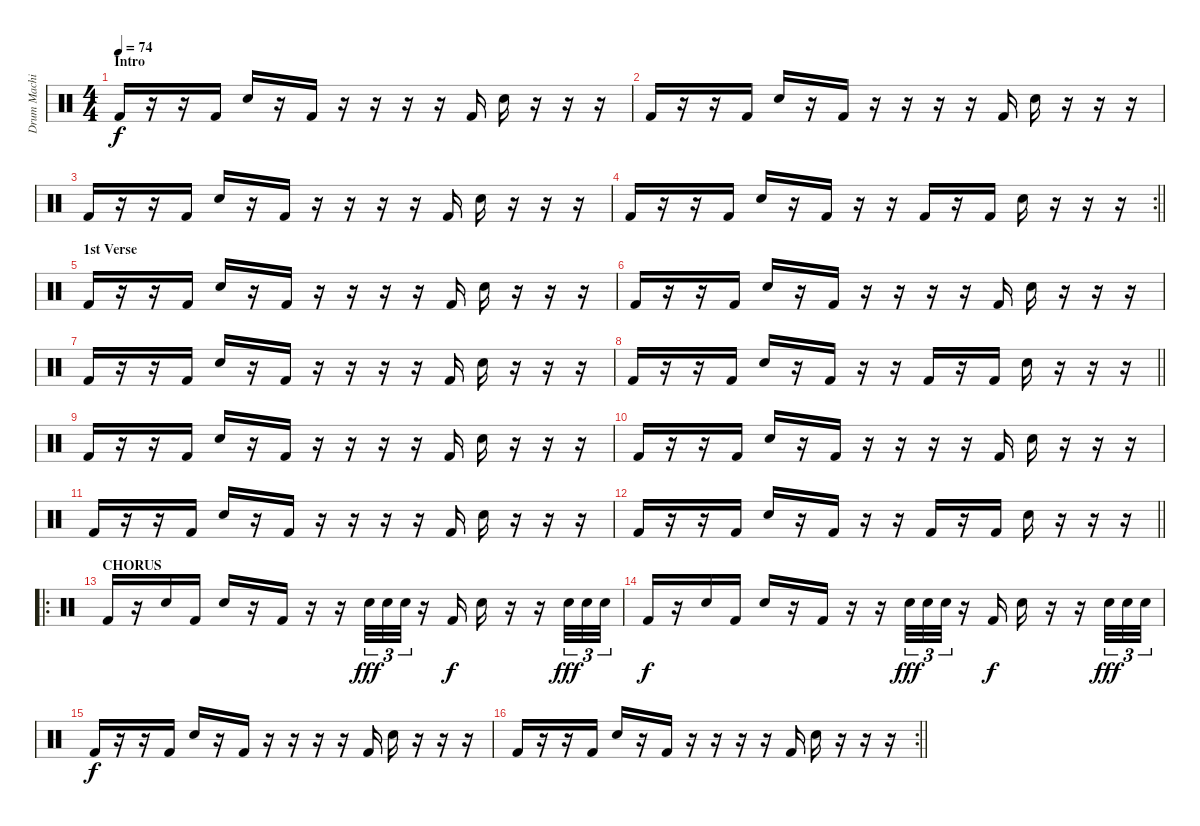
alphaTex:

\track ("Drum Machine" "Drum Machi") {instrument percussion}
\staff {score}
\articulation defaults
\ts (4 4)
\section ("" "Intro")
\tempo 74
\clef neutral
\ks c "Kick (hit) 2".16{dy f}
r.16 r.16 "Kick (hit) 2".16 "Electric Snare (hit)".16 r.16 "Kick (hit) 2".16 r.16 r.16 r.16 r.16 "Kick (hit) 2".16 "Electric Snare (hit)".16 r.16 r.16 r.16 |
"Kick (hit) 2".16 r.16 r.16 "Kick (hit) 2".16 "Electric Snare (hit)".16 r.16 "Kick (hit) 2".16 r.16 r.16 r.16 r.16 "Kick (hit) 2".16 "Electric Snare (hit)".16 r.16 r.16 r.16 |
"Kick (hit) 2".16 r.16 r.16 "Kick (hit) 2".16 "Electric Snare (hit)".16 r.16 "Kick (hit) 2".16 r.16 r.16 r.16 r.16 "Kick (hit) 2".16 "Electric Snare (hit)".16 r.16 r.16 r.16 |
\rc 2
\barLineRight lightlight "Kick (hit) 2".16
r.16 r.16 "Kick (hit) 2".16 "Electric Snare (hit)".16 r.16 "Kick (hit) 2".16 r.16 r.16 "Kick (hit) 2".16 r.16 "Kick (hit) 2".16 "Electric Snare (hit)".16 r.16 r.16 r.16 |
\section ("" "1st Verse")
"Kick (hit) 2".16 r.16 r.16 "Kick (hit) 2".16 "Electric Snare (hit)".16 r.16 "Kick (hit) 2".16 r.16 r.16 r.16 r.16 "Kick (hit) 2".16 "Electric Snare (hit)".16 r.16 r.16 r.16 |
"Kick (hit) 2".16 r.16 r.16 "Kick (hit) 2".16 "Electric Snare (hit)".16 r.16 "Kick (hit) 2".16 r.16 r.16 r.16 r.16 "Kick (hit) 2".16 "Electric Snare (hit)".16 r.16 r.16 r.16 |
"Kick (hit) 2".16 r.16 r.16 "Kick (hit) 2".16 "Electric Snare (hit)".16 r.16 "Kick (hit) 2".16 r.16 r.16 r.16 r.16 "Kick (hit) 2".16 "Electric Snare (hit)".16 r.16 r.16 r.16 |
\barLineRight lightlight "Kick (hit) 2".16
r.16 r.16 "Kick (hit) 2".16 "Electric Snare (hit)".16 r.16 "Kick (hit) 2".16 r.16 r.16 "Kick (hit) 2".16 r.16 "Kick (hit) 2".16 "Electric Snare (hit)".16 r.16 r.16 r.16 |
"Kick (hit) 2".16 r.16 r.16 "Kick (hit) 2".16 "Electric Snare (hit)".16 r.16 "Kick (hit) 2".16 r.16 r.16 r.16 r.16 "Kick (hit) 2".16 "Electric Snare (hit)".16 r.16 r.16 r.16 |
"Kick (hit) 2".16 r.16 r.16 "Kick (hit) 2".16 "Electric Snare (hit)".16 r.16 "Kick (hit) 2".16 r.16 r.16 r.16 r.16 "Kick (hit) 2".16 "Electric Snare (hit)".16 r.16 r.16 r.16 |
"Kick (hit) 2".16 r.16 r.16 "Kick (hit) 2".16 "Electric Snare (hit)".16 r.16 "Kick (hit) 2".16 r.16 r.16 r.16 r.16 "Kick (hit) 2".16 "Electric Snare (hit)".16 r.16 r.16 r.16 |
\barLineRight lightlight "Kick (hit) 2".16
r.16 r.16 "Kick (hit) 2".16 "Electric Snare (hit)".16 r.16 "Kick (hit) 2".16 r.16 r.16 "Kick (hit) 2".16 r.16 "Kick (hit) 2".16 "Electric Snare (hit)".16 r.16 r.16 r.16 |
\ro
\section ("" "CHORUS")
"Kick (hit) 2".16 r.16 "Electric Snare (hit)".16 "Kick (hit) 2".16 "Electric Snare (hit)".16 r.16 "Kick (hit) 2".16 r.16 r.16 "Electric Snare (hit)".32{tu (3 2) dy fff} "Electric Snare (hit)".32{tu (3 2)} "Electric Snare (hit)".32{tu (3 2)} r.16 "Kick (hit) 2".16{dy f} "Electric Snare (hit)".16 r.16 r.16 "Electric Snare (hit)".32{tu (3 2) dy fff} "Electric Snare (hit)".32{tu (3 2)} "Electric Snare (hit)".32{tu (3 2)} |
"Kick (hit) 2".16{dy f} r.16 "Electric Snare (hit)".16 "Kick (hit) 2".16 "Electric Snare (hit)".16 r.16 "Kick (hit) 2".16 r.16 r.16 "Electric Snare (hit)".32{tu (3 2) dy fff} "Electric Snare (hit)".32{tu (3 2)} "Electric Snare (hit)".32{tu (3 2)} r.16 "Kick (hit) 2".16{dy f} "Electric Snare (hit)".16 r.16 r.16 "Electric Snare (hit)".32{tu (3 2) dy fff} "Electric Snare (hit)".32{tu (3 2)} "Electric Snare (hit)".32{tu (3 2)} |
"Kick (hit) 2".16{dy f} r.16 r.16 "Kick (hit) 2".16 "Electric Snare (hit)".16 r.16 "Kick (hit) 2".16 r.16 r.16 r.16 r.16 "Kick (hit) 2".16 "Electric Snare (hit)".16 r.16 r.16 r.16 |
\rc 2
\barLineRight lightlight "Kick (hit) 2".16
r.16 r.16 "Kick (hit) 2".16 "Electric Snare (hit)".16 r.16 "Kick (hit) 2".16 r.16 r.16 r.16 r.16 "Kick (hit) 2".16 "Electric Snare (hit)".16 r.16 r.16 r.16
